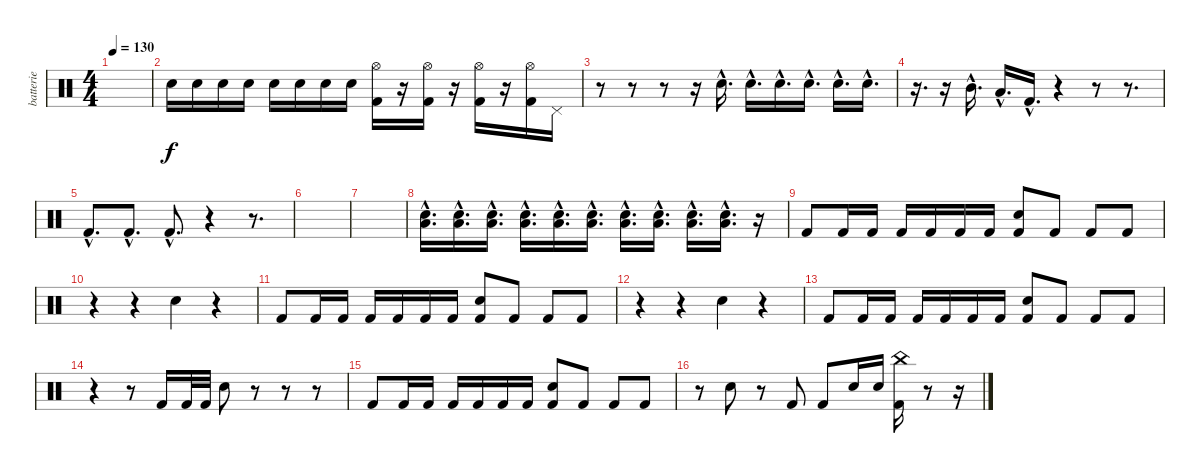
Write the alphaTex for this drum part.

\track ("batterie" "batterie") {instrument percussion}
\staff {score}
\articulation defaults
\ts (4 4)
\tempo 130
\clef neutral
\ks c
|
"Electric Snare (hit)".16{dy f} "Electric Snare (hit)".16 "Electric Snare (hit)".16 "Electric Snare (hit)".16 "Electric Snare (hit)".16 "Electric Snare (hit)".16 "Electric Snare (hit)".16 "Electric Snare (hit)".16 ("Hi-Hat (open)" "Kick (hit) 2").16 r.16 ("Hi-Hat (open)" "Kick (hit) 2").16 r.16 ("Hi-Hat (open)" "Kick (hit) 2").16 r.16 ("Hi-Hat (open)" "Kick (hit) 2").16 "Pedal Hi-Hat (hit)".16 |
r.8 r.8 r.8 r.16 "Electric Snare (hit)"{hac}.16{d} "Electric Snare (hit)"{hac}.16{d} "Electric Snare (hit)"{hac}.16{d} "Electric Snare (hit)"{hac}.16{d} "Electric Snare (hit)"{hac}.16{d} "Electric Snare (hit)"{hac}.16{d} |
r.16{d} r.16 "Mid Tom (hit)"{hac}.16{d} "Low Tom (hit)"{hac}.16{d} "Kick (hit) 2"{hac}.16{d} r.4 r.8 r.8{d} |
"Kick (hit) 2"{hac}.8{d} "Kick (hit) 2"{hac}.8{d} "Kick (hit) 2"{hac}.8{d} r.4 r.8{d} |
|
|
("Low Tom (hit)"{hac} "Electric Snare (hit)"{hac}).16{d} ("Low Tom (hit)"{hac} "Electric Snare (hit)"{hac}).16{d} ("Low Tom (hit)"{hac} "Electric Snare (hit)"{hac}).16{d} ("Low Tom (hit)"{hac} "Electric Snare (hit)"{hac}).16{d} ("Low Tom (hit)"{hac} "Electric Snare (hit)"{hac}).16{d} ("Low Tom (hit)"{hac} "Electric Snare (hit)"{hac}).16{d} ("Low Tom (hit)"{hac} "Electric Snare (hit)"{hac}).16{d} ("Low Tom (hit)"{hac} "Electric Snare (hit)"{hac}).16{d} ("Low Tom (hit)"{hac} "Electric Snare (hit)"{hac}).16{d} ("Low Tom (hit)"{hac} "Electric Snare (hit)"{hac}).16{d} r.16 |
"Kick (hit) 2".8 "Kick (hit) 2".16 "Kick (hit) 2".16 "Kick (hit) 2".16 "Kick (hit) 2".16 "Kick (hit) 2".16 "Kick (hit) 2".16 ("Electric Snare (hit)" "Kick (hit) 2").8 "Kick (hit) 2".8 "Kick (hit) 2".8 "Kick (hit) 2".8 |
r.4 r.4 "Electric Snare (hit)".4 r.4 |
"Kick (hit) 2".8 "Kick (hit) 2".16 "Kick (hit) 2".16 "Kick (hit) 2".16 "Kick (hit) 2".16 "Kick (hit) 2".16 "Kick (hit) 2".16 ("Electric Snare (hit)" "Kick (hit) 2").8 "Kick (hit) 2".8 "Kick (hit) 2".8 "Kick (hit) 2".8 |
r.4 r.4 "Electric Snare (hit)".4 r.4 |
"Kick (hit) 2".8 "Kick (hit) 2".16 "Kick (hit) 2".16 "Kick (hit) 2".16 "Kick (hit) 2".16 "Kick (hit) 2".16 "Kick (hit) 2".16 ("Electric Snare (hit)" "Kick (hit) 2").8 "Kick (hit) 2".8 "Kick (hit) 2".8 "Kick (hit) 2".8 |
r.4 r.8 "Kick (hit) 2".16 "Kick (hit) 2".32 "Kick (hit) 2".32 "Electric Snare (hit)".8 r.8 r.8 r.8 |
"Kick (hit) 2".8 "Kick (hit) 2".16 "Kick (hit) 2".16 "Kick (hit) 2".16 "Kick (hit) 2".16 "Kick (hit) 2".16 "Kick (hit) 2".16 ("Electric Snare (hit)" "Kick (hit) 2").8 "Kick (hit) 2".8 "Kick (hit) 2".8 "Kick (hit) 2".8 |
r.8 "Electric Snare (hit)".8 r.8 "Kick (hit) 2".8 "Kick (hit) 2".8 "Electric Snare (hit)".16 "Electric Snare (hit)".16 ("China (hit)" "Kick (hit) 2").16 r.8 r.16
